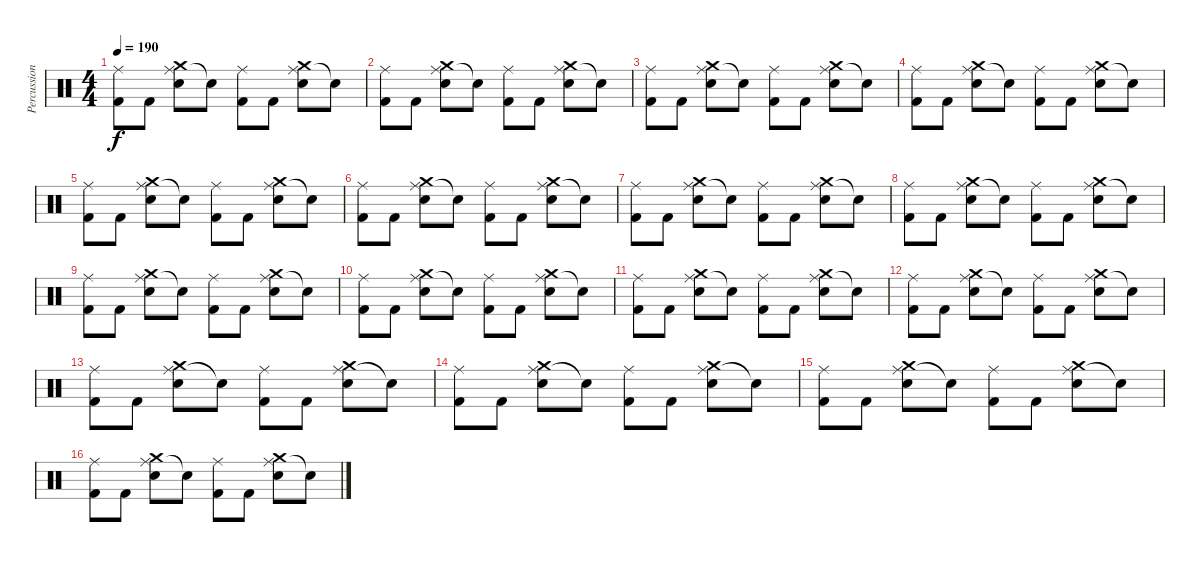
\track ("Percussions" "Percussion") {instrument percussion}
\staff {score}
\articulation defaults
\ts (4 4)
\tempo 190
\clef neutral
\ks c
("Ride (middle)" "Kick (hit) 2").8{dy f} "Kick (hit) 2".8 ("Ride (middle)" "Crash medium (hit)" "Electric Snare (hit)").8 "Snare (hit)"{t}.8 ("Ride (middle)" "Kick (hit) 2").8 "Kick (hit) 2".8 ("Ride (middle)" "Crash medium (hit)" "Electric Snare (hit)").8 "Snare (hit)"{t}.8 |
("Ride (middle)" "Kick (hit) 2").8 "Kick (hit) 2".8 ("Ride (middle)" "Crash medium (hit)" "Electric Snare (hit)").8 "Snare (hit)"{t}.8 ("Ride (middle)" "Kick (hit) 2").8 "Kick (hit) 2".8 ("Ride (middle)" "Crash medium (hit)" "Electric Snare (hit)").8 "Snare (hit)"{t}.8 |
("Ride (middle)" "Kick (hit) 2").8 "Kick (hit) 2".8 ("Ride (middle)" "Crash medium (hit)" "Electric Snare (hit)").8 "Snare (hit)"{t}.8 ("Ride (middle)" "Kick (hit) 2").8 "Kick (hit) 2".8 ("Ride (middle)" "Crash medium (hit)" "Electric Snare (hit)").8 "Snare (hit)"{t}.8 |
("Ride (middle)" "Kick (hit) 2").8 "Kick (hit) 2".8 ("Ride (middle)" "Crash medium (hit)" "Electric Snare (hit)").8 "Snare (hit)"{t}.8 ("Ride (middle)" "Kick (hit) 2").8 "Kick (hit) 2".8 ("Ride (middle)" "Crash medium (hit)" "Electric Snare (hit)").8 "Snare (hit)"{t}.8 |
("Ride (middle)" "Kick (hit) 2").8 "Kick (hit) 2".8 ("Ride (middle)" "Crash medium (hit)" "Electric Snare (hit)").8 "Snare (hit)"{t}.8 ("Ride (middle)" "Kick (hit) 2").8 "Kick (hit) 2".8 ("Ride (middle)" "Crash medium (hit)" "Electric Snare (hit)").8 "Snare (hit)"{t}.8 |
("Ride (middle)" "Kick (hit) 2").8 "Kick (hit) 2".8 ("Ride (middle)" "Crash medium (hit)" "Electric Snare (hit)").8 "Snare (hit)"{t}.8 ("Ride (middle)" "Kick (hit) 2").8 "Kick (hit) 2".8 ("Ride (middle)" "Crash medium (hit)" "Electric Snare (hit)").8 "Snare (hit)"{t}.8 |
("Ride (middle)" "Kick (hit) 2").8 "Kick (hit) 2".8 ("Ride (middle)" "Crash medium (hit)" "Electric Snare (hit)").8 "Snare (hit)"{t}.8 ("Ride (middle)" "Kick (hit) 2").8 "Kick (hit) 2".8 ("Ride (middle)" "Crash medium (hit)" "Electric Snare (hit)").8 "Snare (hit)"{t}.8 |
("Ride (middle)" "Kick (hit) 2").8 "Kick (hit) 2".8 ("Ride (middle)" "Crash medium (hit)" "Electric Snare (hit)").8 "Snare (hit)"{t}.8 ("Ride (middle)" "Kick (hit) 2").8 "Kick (hit) 2".8 ("Ride (middle)" "Crash medium (hit)" "Electric Snare (hit)").8 "Snare (hit)"{t}.8 |
("Ride (middle)" "Kick (hit) 2").8 "Kick (hit) 2".8 ("Ride (middle)" "Crash medium (hit)" "Electric Snare (hit)").8 "Snare (hit)"{t}.8 ("Ride (middle)" "Kick (hit) 2").8 "Kick (hit) 2".8 ("Ride (middle)" "Crash medium (hit)" "Electric Snare (hit)").8 "Snare (hit)"{t}.8 |
("Ride (middle)" "Kick (hit) 2").8 "Kick (hit) 2".8 ("Ride (middle)" "Crash medium (hit)" "Electric Snare (hit)").8 "Snare (hit)"{t}.8 ("Ride (middle)" "Kick (hit) 2").8 "Kick (hit) 2".8 ("Ride (middle)" "Crash medium (hit)" "Electric Snare (hit)").8 "Snare (hit)"{t}.8 |
("Ride (middle)" "Kick (hit) 2").8 "Kick (hit) 2".8 ("Ride (middle)" "Crash medium (hit)" "Electric Snare (hit)").8 "Snare (hit)"{t}.8 ("Ride (middle)" "Kick (hit) 2").8 "Kick (hit) 2".8 ("Ride (middle)" "Crash medium (hit)" "Electric Snare (hit)").8 "Snare (hit)"{t}.8 |
("Ride (middle)" "Kick (hit) 2").8 "Kick (hit) 2".8 ("Ride (middle)" "Crash medium (hit)" "Electric Snare (hit)").8 "Snare (hit)"{t}.8 ("Ride (middle)" "Kick (hit) 2").8 "Kick (hit) 2".8 ("Ride (middle)" "Crash medium (hit)" "Electric Snare (hit)").8 "Snare (hit)"{t}.8 |
("Ride (middle)" "Kick (hit) 2").8 "Kick (hit) 2".8 ("Ride (middle)" "Crash medium (hit)" "Electric Snare (hit)").8 "Snare (hit)"{t}.8 ("Ride (middle)" "Kick (hit) 2").8 "Kick (hit) 2".8 ("Ride (middle)" "Crash medium (hit)" "Electric Snare (hit)").8 "Snare (hit)"{t}.8 |
("Ride (middle)" "Kick (hit) 2").8 "Kick (hit) 2".8 ("Ride (middle)" "Crash medium (hit)" "Electric Snare (hit)").8 "Snare (hit)"{t}.8 ("Ride (middle)" "Kick (hit) 2").8 "Kick (hit) 2".8 ("Ride (middle)" "Crash medium (hit)" "Electric Snare (hit)").8 "Snare (hit)"{t}.8 |
("Ride (middle)" "Kick (hit) 2").8 "Kick (hit) 2".8 ("Ride (middle)" "Crash medium (hit)" "Electric Snare (hit)").8 "Snare (hit)"{t}.8 ("Ride (middle)" "Kick (hit) 2").8 "Kick (hit) 2".8 ("Ride (middle)" "Crash medium (hit)" "Electric Snare (hit)").8 "Snare (hit)"{t}.8 |
("Ride (middle)" "Kick (hit) 2").8 "Kick (hit) 2".8 ("Ride (middle)" "Crash medium (hit)" "Electric Snare (hit)").8 "Snare (hit)"{t}.8 ("Ride (middle)" "Kick (hit) 2").8 "Kick (hit) 2".8 ("Ride (middle)" "Crash medium (hit)" "Electric Snare (hit)").8 "Snare (hit)"{t}.8
